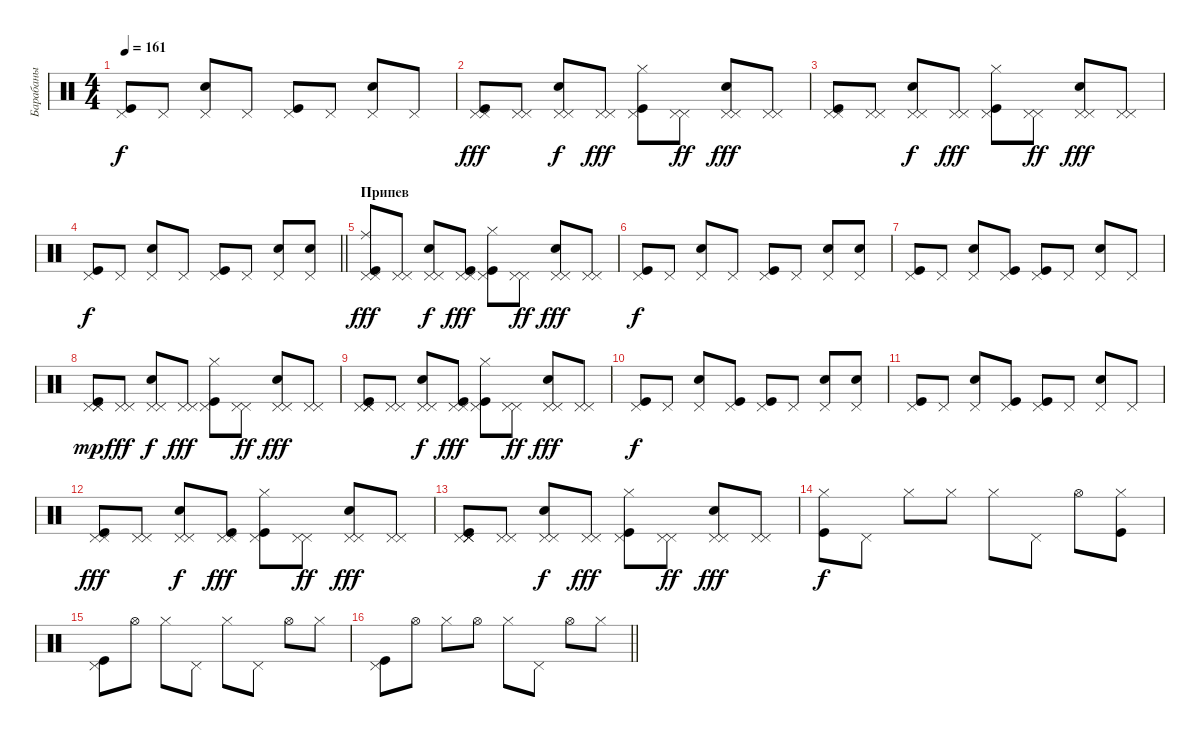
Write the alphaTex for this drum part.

\track ("Барабаны" "Барабаны") {instrument percussion}
\staff {score}
\articulation defaults
\ts (4 4)
\tempo 161
\clef neutral
\ks c
("Kick (hit)" "Pedal Hi-Hat (hit)").8{dy f} "Pedal Hi-Hat (hit)".8 ("Snare (hit) 2" "Pedal Hi-Hat (hit)").8 "Pedal Hi-Hat (hit)".8 ("Kick (hit)" "Pedal Hi-Hat (hit)").8 "Pedal Hi-Hat (hit)".8 ("Snare (hit) 2" "Pedal Hi-Hat (hit)").8 "Pedal Hi-Hat (hit)".8 |
("Pedal Hi-Hat (hit)" "Kick (hit)" "Pedal Hi-Hat (hit)").8{dy fff} ("Pedal Hi-Hat (hit)" "Pedal Hi-Hat (hit)").8 ("Snare (hit) 2" "Pedal Hi-Hat (hit)" "Pedal Hi-Hat (hit)").8{dy f} ("Pedal Hi-Hat (hit)" "Pedal Hi-Hat (hit)").8{dy fff} ("Kick (hit)" "Hi-Hat (closed)" "Pedal Hi-Hat (hit)").8 ("Pedal Hi-Hat (hit)" "Pedal Hi-Hat (hit)").8{dy ff} ("Snare (hit) 2" "Pedal Hi-Hat (hit)" "Pedal Hi-Hat (hit)").8{dy fff} ("Pedal Hi-Hat (hit)" "Pedal Hi-Hat (hit)").8 |
("Pedal Hi-Hat (hit)" "Kick (hit)" "Pedal Hi-Hat (hit)").8 ("Pedal Hi-Hat (hit)" "Pedal Hi-Hat (hit)").8 ("Snare (hit) 2" "Pedal Hi-Hat (hit)" "Pedal Hi-Hat (hit)").8{dy f} ("Pedal Hi-Hat (hit)" "Pedal Hi-Hat (hit)").8{dy fff} ("Kick (hit)" "Pedal Hi-Hat (hit)" "Hi-Hat (closed)").8 ("Pedal Hi-Hat (hit)" "Pedal Hi-Hat (hit)").8{dy ff} ("Snare (hit) 2" "Pedal Hi-Hat (hit)" "Pedal Hi-Hat (hit)").8{dy fff} ("Pedal Hi-Hat (hit)" "Pedal Hi-Hat (hit)").8 |
\barLineRight lightlight
("Kick (hit)" "Pedal Hi-Hat (hit)").8{dy f} "Pedal Hi-Hat (hit)".8 ("Snare (hit) 2" "Pedal Hi-Hat (hit)").8 "Pedal Hi-Hat (hit)".8 ("Kick (hit)" "Pedal Hi-Hat (hit)").8 "Pedal Hi-Hat (hit)".8 ("Snare (hit) 2" "Pedal Hi-Hat (hit)").8 ("Snare (hit) 2" "Pedal Hi-Hat (hit)").8 |
\section ("" "Припев")
("Ride (middle)" "Pedal Hi-Hat (hit)" "Kick (hit)" "Pedal Hi-Hat (hit)").8{dy fff} ("Pedal Hi-Hat (hit)" "Pedal Hi-Hat (hit)").8 ("Snare (hit) 2" "Pedal Hi-Hat (hit)" "Pedal Hi-Hat (hit)").8{dy f} ("Kick (hit)" "Pedal Hi-Hat (hit)" "Pedal Hi-Hat (hit)").8{dy fff} ("Kick (hit)" "Pedal Hi-Hat (hit)" "Hi-Hat (closed)").8 ("Pedal Hi-Hat (hit)" "Pedal Hi-Hat (hit)").8{dy ff} ("Snare (hit) 2" "Pedal Hi-Hat (hit)" "Pedal Hi-Hat (hit)").8{dy fff} ("Pedal Hi-Hat (hit)" "Pedal Hi-Hat (hit)").8 |
("Kick (hit)" "Pedal Hi-Hat (hit)").8{dy f} "Pedal Hi-Hat (hit)".8 ("Snare (hit) 2" "Pedal Hi-Hat (hit)").8 "Pedal Hi-Hat (hit)".8 ("Kick (hit)" "Pedal Hi-Hat (hit)").8 "Pedal Hi-Hat (hit)".8 ("Snare (hit) 2" "Pedal Hi-Hat (hit)").8 ("Snare (hit) 2" "Pedal Hi-Hat (hit)").8 |
("Kick (hit)" "Pedal Hi-Hat (hit)").8 "Pedal Hi-Hat (hit)".8 ("Snare (hit) 2" "Pedal Hi-Hat (hit)").8 ("Kick (hit)" "Pedal Hi-Hat (hit)").8 ("Kick (hit)" "Pedal Hi-Hat (hit)").8 "Pedal Hi-Hat (hit)".8 ("Snare (hit) 2" "Pedal Hi-Hat (hit)").8 "Pedal Hi-Hat (hit)".8 |
("Pedal Hi-Hat (hit)" "Kick (hit)" "Pedal Hi-Hat (hit)" "Pedal Hi-Hat (hit)").8{dy mp} ("Pedal Hi-Hat (hit)" "Pedal Hi-Hat (hit)").8{dy fff} ("Snare (hit) 2" "Pedal Hi-Hat (hit)" "Pedal Hi-Hat (hit)").8{dy f} ("Pedal Hi-Hat (hit)" "Pedal Hi-Hat (hit)").8{dy fff} ("Kick (hit)" "Hi-Hat (closed)" "Pedal Hi-Hat (hit)").8 ("Pedal Hi-Hat (hit)" "Pedal Hi-Hat (hit)").8{dy ff} ("Snare (hit) 2" "Pedal Hi-Hat (hit)" "Pedal Hi-Hat (hit)").8{dy fff} ("Pedal Hi-Hat (hit)" "Pedal Hi-Hat (hit)").8 |
("Pedal Hi-Hat (hit)" "Pedal Hi-Hat (hit)" "Kick (hit)" "Pedal Hi-Hat (hit)").8 ("Pedal Hi-Hat (hit)" "Pedal Hi-Hat (hit)").8 ("Snare (hit) 2" "Pedal Hi-Hat (hit)" "Pedal Hi-Hat (hit)").8{dy f} ("Kick (hit)" "Pedal Hi-Hat (hit)" "Pedal Hi-Hat (hit)").8{dy fff} ("Kick (hit)" "Pedal Hi-Hat (hit)" "Hi-Hat (closed)").8 ("Pedal Hi-Hat (hit)" "Pedal Hi-Hat (hit)").8{dy ff} ("Snare (hit) 2" "Pedal Hi-Hat (hit)" "Pedal Hi-Hat (hit)").8{dy fff} ("Pedal Hi-Hat (hit)" "Pedal Hi-Hat (hit)").8 |
("Pedal Hi-Hat (hit)" "Kick (hit)").8{dy f} "Pedal Hi-Hat (hit)".8 ("Snare (hit) 2" "Pedal Hi-Hat (hit)").8 ("Kick (hit)" "Pedal Hi-Hat (hit)").8 ("Kick (hit)" "Pedal Hi-Hat (hit)").8 "Pedal Hi-Hat (hit)".8 ("Snare (hit) 2" "Pedal Hi-Hat (hit)").8 ("Snare (hit) 2" "Pedal Hi-Hat (hit)").8 |
("Kick (hit)" "Pedal Hi-Hat (hit)").8 "Pedal Hi-Hat (hit)".8 ("Snare (hit) 2" "Pedal Hi-Hat (hit)").8 ("Kick (hit)" "Pedal Hi-Hat (hit)").8 ("Kick (hit)" "Pedal Hi-Hat (hit)").8 "Pedal Hi-Hat (hit)".8 ("Snare (hit) 2" "Pedal Hi-Hat (hit)").8 "Pedal Hi-Hat (hit)".8 |
("Pedal Hi-Hat (hit)" "Kick (hit)" "Pedal Hi-Hat (hit)").8{dy fff} ("Pedal Hi-Hat (hit)" "Pedal Hi-Hat (hit)").8 ("Snare (hit) 2" "Pedal Hi-Hat (hit)" "Pedal Hi-Hat (hit)").8{dy f} ("Kick (hit)" "Pedal Hi-Hat (hit)" "Pedal Hi-Hat (hit)").8{dy fff} ("Kick (hit)" "Hi-Hat (closed)" "Pedal Hi-Hat (hit)").8 ("Pedal Hi-Hat (hit)" "Pedal Hi-Hat (hit)").8{dy ff} ("Snare (hit) 2" "Pedal Hi-Hat (hit)" "Pedal Hi-Hat (hit)").8{dy fff} ("Pedal Hi-Hat (hit)" "Pedal Hi-Hat (hit)").8 |
("Pedal Hi-Hat (hit)" "Pedal Hi-Hat (hit)" "Kick (hit)" "Pedal Hi-Hat (hit)" "Pedal Hi-Hat (hit)").8 ("Pedal Hi-Hat (hit)" "Pedal Hi-Hat (hit)").8 ("Snare (hit) 2" "Pedal Hi-Hat (hit)" "Pedal Hi-Hat (hit)").8{dy f} ("Pedal Hi-Hat (hit)" "Pedal Hi-Hat (hit)").8{dy fff} ("Kick (hit)" "Pedal Hi-Hat (hit)" "Hi-Hat (closed)").8 ("Pedal Hi-Hat (hit)" "Pedal Hi-Hat (hit)").8{dy ff} ("Snare (hit) 2" "Pedal Hi-Hat (hit)" "Pedal Hi-Hat (hit)").8{dy fff} ("Pedal Hi-Hat (hit)" "Pedal Hi-Hat (hit)").8 |
("Hi-Hat (closed)" "Kick (hit)").8{dy f} "Pedal Hi-Hat (hit)".8 "Hi-Hat (closed)".8 "Hi-Hat (closed)".8 "Hi-Hat (closed)".8 "Pedal Hi-Hat (hit)".8 "Hi-Hat (open)".8 ("Kick (hit)" "Hi-Hat (closed)").8 |
("Kick (hit)" "Pedal Hi-Hat (hit)").8 "Hi-Hat (open)".8 "Hi-Hat (closed)".8 "Pedal Hi-Hat (hit)".8 "Hi-Hat (closed)".8 "Pedal Hi-Hat (hit)".8 "Hi-Hat (open)".8 "Hi-Hat (closed)".8 |
\barLineRight lightlight
("Kick (hit)" "Pedal Hi-Hat (hit)").8 "Hi-Hat (open)".8 "Hi-Hat (closed)".8 "Hi-Hat (open)".8 "Hi-Hat (closed)".8 "Pedal Hi-Hat (hit)".8 "Hi-Hat (open)".8 "Hi-Hat (closed)".8
